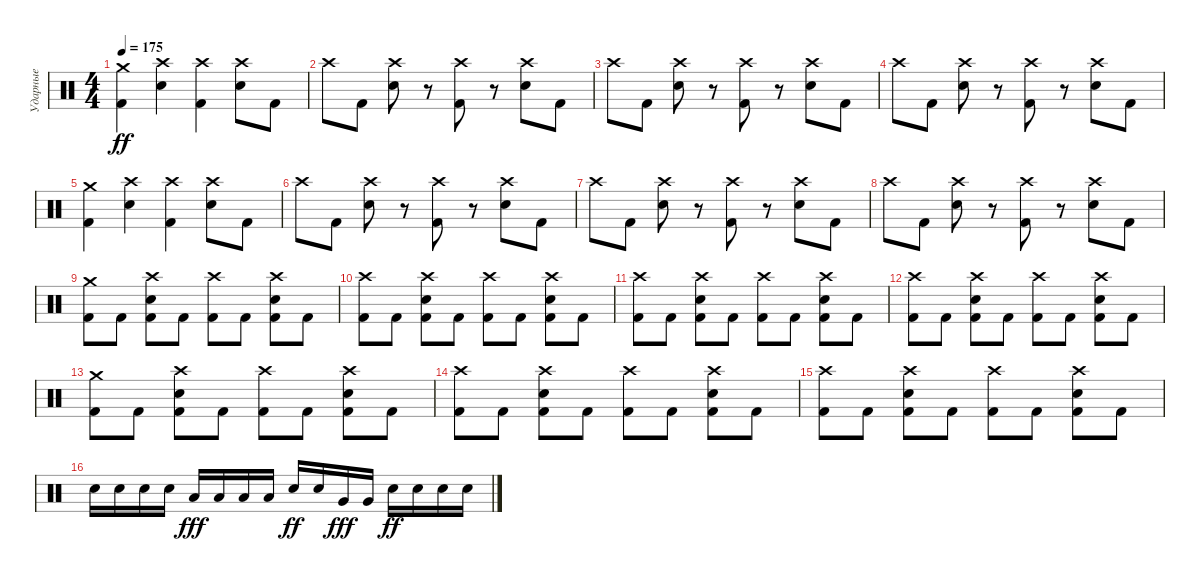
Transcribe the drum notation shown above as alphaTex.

\track ("Ударные" "Ударные") {instrument percussion}
\staff {score}
\articulation defaults
\ts (4 4)
\tempo 175
\clef neutral
\ks c
("Kick (hit) 2" "Crash medium (hit)").4{dy ff} ("Electric Snare (hit)" "Crash high (hit)").4 ("Kick (hit) 2" "Crash high (hit)").4 ("Electric Snare (hit)" "Crash high (hit)").8 "Kick (hit) 2".8 |
"Crash high (hit)".8 "Kick (hit) 2".8 ("Electric Snare (hit)" "Crash high (hit)").8 r.8 ("Kick (hit) 2" "Crash high (hit)").8 r.8 ("Electric Snare (hit)" "Crash high (hit)").8 "Kick (hit) 2".8 |
"Crash high (hit)".8 "Kick (hit) 2".8 ("Electric Snare (hit)" "Crash high (hit)").8 r.8 ("Kick (hit) 2" "Crash high (hit)").8 r.8 ("Electric Snare (hit)" "Crash high (hit)").8 "Kick (hit) 2".8 |
"Crash high (hit)".8 "Kick (hit) 2".8 ("Electric Snare (hit)" "Crash high (hit)").8 r.8 ("Kick (hit) 2" "Crash high (hit)").8 r.8 ("Electric Snare (hit)" "Crash high (hit)").8 "Kick (hit) 2".8 |
("Kick (hit) 2" "Crash medium (hit)").4 ("Electric Snare (hit)" "Crash high (hit)").4 ("Kick (hit) 2" "Crash high (hit)").4 ("Electric Snare (hit)" "Crash high (hit)").8 "Kick (hit) 2".8 |
"Crash high (hit)".8 "Kick (hit) 2".8 ("Electric Snare (hit)" "Crash high (hit)").8 r.8 ("Kick (hit) 2" "Crash high (hit)").8 r.8 ("Electric Snare (hit)" "Crash high (hit)").8 "Kick (hit) 2".8 |
"Crash high (hit)".8 "Kick (hit) 2".8 ("Electric Snare (hit)" "Crash high (hit)").8 r.8 ("Kick (hit) 2" "Crash high (hit)").8 r.8 ("Electric Snare (hit)" "Crash high (hit)").8 "Kick (hit) 2".8 |
"Crash high (hit)".8 "Kick (hit) 2".8 ("Electric Snare (hit)" "Crash high (hit)").8 r.8 ("Kick (hit) 2" "Crash high (hit)").8 r.8 ("Electric Snare (hit)" "Crash high (hit)").8 "Kick (hit) 2".8 |
("Kick (hit) 2" "Crash medium (hit)").8 "Kick (hit) 2".8 ("Kick (hit) 2" "Electric Snare (hit)" "Crash high (hit)").8 "Kick (hit) 2".8 ("Kick (hit) 2" "Crash high (hit)").8 "Kick (hit) 2".8 ("Kick (hit) 2" "Electric Snare (hit)" "Crash high (hit)").8 "Kick (hit) 2".8 |
("Kick (hit) 2" "Crash high (hit)").8 "Kick (hit) 2".8 ("Kick (hit) 2" "Electric Snare (hit)" "Crash high (hit)").8 "Kick (hit) 2".8 ("Kick (hit) 2" "Crash high (hit)").8 "Kick (hit) 2".8 ("Kick (hit) 2" "Electric Snare (hit)" "Crash high (hit)").8 "Kick (hit) 2".8 |
("Kick (hit) 2" "Crash high (hit)").8 "Kick (hit) 2".8 ("Kick (hit) 2" "Electric Snare (hit)" "Crash high (hit)").8 "Kick (hit) 2".8 ("Kick (hit) 2" "Crash high (hit)").8 "Kick (hit) 2".8 ("Kick (hit) 2" "Electric Snare (hit)" "Crash high (hit)").8 "Kick (hit) 2".8 |
("Kick (hit) 2" "Crash high (hit)").8 "Kick (hit) 2".8 ("Kick (hit) 2" "Electric Snare (hit)" "Crash high (hit)").8 "Kick (hit) 2".8 ("Kick (hit) 2" "Crash high (hit)").8 "Kick (hit) 2".8 ("Kick (hit) 2" "Electric Snare (hit)" "Crash high (hit)").8 "Kick (hit) 2".8 |
("Kick (hit) 2" "Crash medium (hit)").8 "Kick (hit) 2".8 ("Kick (hit) 2" "Electric Snare (hit)" "Crash high (hit)").8 "Kick (hit) 2".8 ("Kick (hit) 2" "Crash high (hit)").8 "Kick (hit) 2".8 ("Kick (hit) 2" "Electric Snare (hit)" "Crash high (hit)").8 "Kick (hit) 2".8 |
("Kick (hit) 2" "Crash high (hit)").8 "Kick (hit) 2".8 ("Kick (hit) 2" "Electric Snare (hit)" "Crash high (hit)").8 "Kick (hit) 2".8 ("Kick (hit) 2" "Crash high (hit)").8 "Kick (hit) 2".8 ("Kick (hit) 2" "Electric Snare (hit)" "Crash high (hit)").8 "Kick (hit) 2".8 |
("Kick (hit) 2" "Crash high (hit)").8 "Kick (hit) 2".8 ("Kick (hit) 2" "Electric Snare (hit)" "Crash high (hit)").8 "Kick (hit) 2".8 ("Kick (hit) 2" "Crash high (hit)").8 "Kick (hit) 2".8 ("Kick (hit) 2" "Electric Snare (hit)" "Crash high (hit)").8 "Kick (hit) 2".8 |
"Electric Snare (hit)".16 "Electric Snare (hit)".16 "Electric Snare (hit)".16 "Electric Snare (hit)".16 "Low Tom (hit)".16{dy fff} "Low Tom (hit)".16 "Low Tom (hit)".16 "Low Tom (hit)".16 "Electric Snare (hit)".16{dy ff} "Electric Snare (hit)".16 "Very Low Tom (hit)".16{dy fff} "Very Low Tom (hit)".16 "Electric Snare (hit)".16{dy ff} "Electric Snare (hit)".16 "Electric Snare (hit)".16 "Electric Snare (hit)".16
